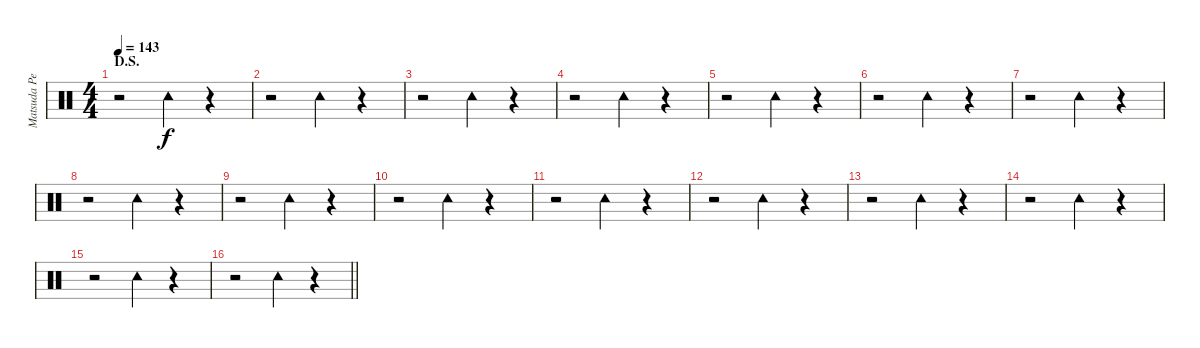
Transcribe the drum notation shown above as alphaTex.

\track ("Matsuda Percussion" "Matsuda Pe") {instrument percussion}
\staff {score}
\articulation defaults
\ts (4 4)
\section ("" "D.S.")
\tempo 143
\clef neutral
\ks c
r.2{dy f} "Tambourine (hit)".4 r.4 |
r.2 "Tambourine (hit)".4 r.4 |
r.2 "Tambourine (hit)".4 r.4 |
r.2 "Tambourine (hit)".4 r.4 |
r.2 "Tambourine (hit)".4 r.4 |
r.2 "Tambourine (hit)".4 r.4 |
r.2 "Tambourine (hit)".4 r.4 |
r.2 "Tambourine (hit)".4 r.4 |
r.2 "Tambourine (hit)".4 r.4 |
r.2 "Tambourine (hit)".4 r.4 |
r.2 "Tambourine (hit)".4 r.4 |
r.2 "Tambourine (hit)".4 r.4 |
r.2 "Tambourine (hit)".4 r.4 |
r.2 "Tambourine (hit)".4 r.4 |
r.2 "Tambourine (hit)".4 r.4 |
\barLineRight lightlight
r.2 "Tambourine (hit)".4 r.4
